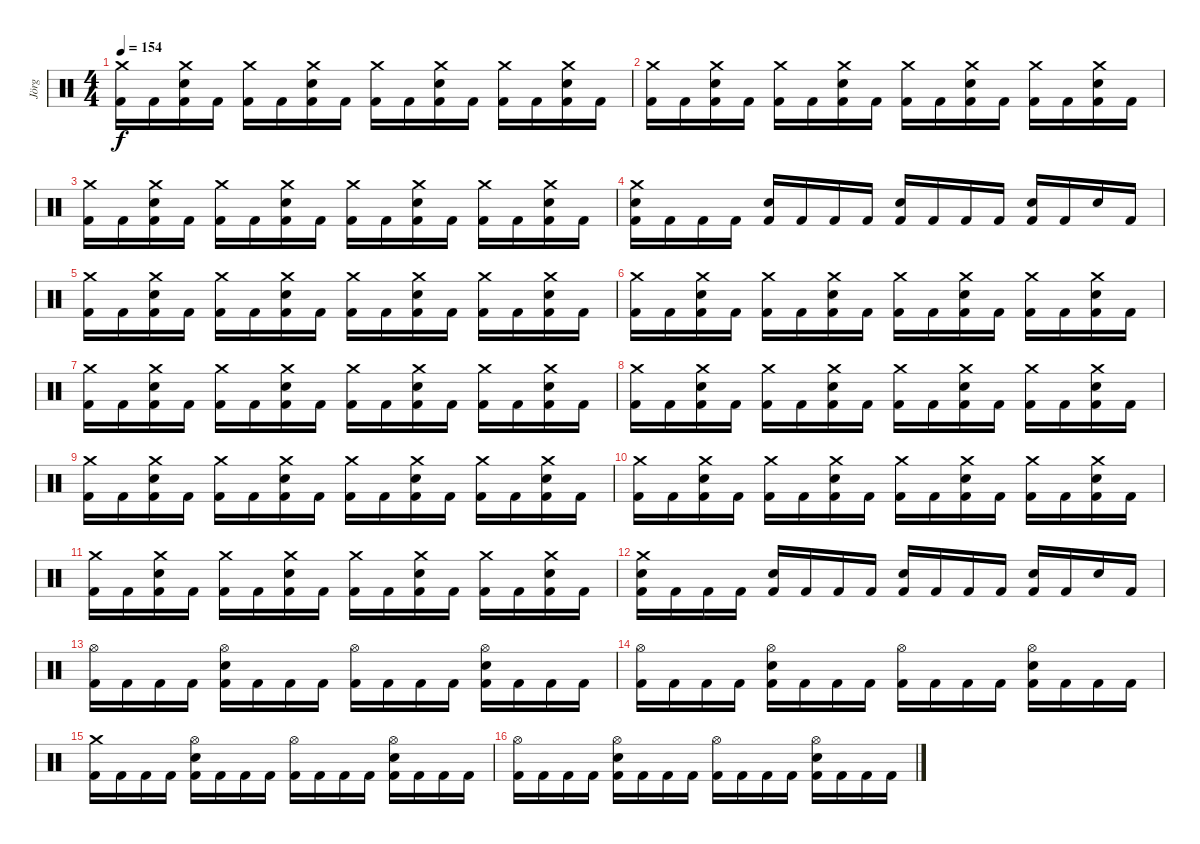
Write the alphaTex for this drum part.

\track ("Jörg" "Jörg") {instrument percussion}
\staff {score}
\articulation defaults
\ts (4 4)
\tempo 154
\clef neutral
\ks c
("Crash medium (hit)" "Kick (hit) 2").16{dy f} "Kick (hit) 2".16 ("Snare (hit) 2" "Crash medium (hit)" "Kick (hit) 2").16 "Kick (hit) 2".16 ("Crash medium (hit)" "Kick (hit) 2").16 "Kick (hit) 2".16 ("Snare (hit) 2" "Crash medium (hit)" "Kick (hit) 2").16 "Kick (hit) 2".16 ("Crash medium (hit)" "Kick (hit) 2").16 "Kick (hit) 2".16 ("Snare (hit) 2" "Crash medium (hit)" "Kick (hit) 2").16 "Kick (hit) 2".16 ("Crash medium (hit)" "Kick (hit) 2").16 "Kick (hit) 2".16 ("Snare (hit) 2" "Crash medium (hit)" "Kick (hit) 2").16 "Kick (hit) 2".16 |
("Crash medium (hit)" "Kick (hit) 2").16 "Kick (hit) 2".16 ("Snare (hit) 2" "Crash medium (hit)" "Kick (hit) 2").16 "Kick (hit) 2".16 ("Crash medium (hit)" "Kick (hit) 2").16 "Kick (hit) 2".16 ("Snare (hit) 2" "Crash medium (hit)" "Kick (hit) 2").16 "Kick (hit) 2".16 ("Crash medium (hit)" "Kick (hit) 2").16 "Kick (hit) 2".16 ("Snare (hit) 2" "Crash medium (hit)" "Kick (hit) 2").16 "Kick (hit) 2".16 ("Crash medium (hit)" "Kick (hit) 2").16 "Kick (hit) 2".16 ("Snare (hit) 2" "Crash medium (hit)" "Kick (hit) 2").16 "Kick (hit) 2".16 |
("Crash medium (hit)" "Kick (hit) 2").16 "Kick (hit) 2".16 ("Snare (hit) 2" "Crash medium (hit)" "Kick (hit) 2").16 "Kick (hit) 2".16 ("Crash medium (hit)" "Kick (hit) 2").16 "Kick (hit) 2".16 ("Snare (hit) 2" "Crash medium (hit)" "Kick (hit) 2").16 "Kick (hit) 2".16 ("Crash medium (hit)" "Kick (hit) 2").16 "Kick (hit) 2".16 ("Snare (hit) 2" "Crash medium (hit)" "Kick (hit) 2").16 "Kick (hit) 2".16 ("Crash medium (hit)" "Kick (hit) 2").16 "Kick (hit) 2".16 ("Snare (hit) 2" "Crash medium (hit)" "Kick (hit) 2").16 "Kick (hit) 2".16 |
("Snare (hit) 2" "Crash medium (hit)" "Kick (hit) 2").16 "Kick (hit) 2".16 "Kick (hit) 2".16 "Kick (hit) 2".16 ("Snare (hit) 2" "Kick (hit) 2").16 "Kick (hit) 2".16 "Kick (hit) 2".16 "Kick (hit) 2".16 ("Snare (hit) 2" "Kick (hit) 2").16 "Kick (hit) 2".16 "Kick (hit) 2".16 "Kick (hit) 2".16 ("Snare (hit) 2" "Kick (hit) 2").16 "Kick (hit) 2".16 "Snare (hit) 2".16 "Kick (hit) 2".16 |
("Crash medium (hit)" "Kick (hit) 2").16 "Kick (hit) 2".16 ("Snare (hit) 2" "Crash medium (hit)" "Kick (hit) 2").16 "Kick (hit) 2".16 ("Crash medium (hit)" "Kick (hit) 2").16 "Kick (hit) 2".16 ("Snare (hit) 2" "Crash medium (hit)" "Kick (hit) 2").16 "Kick (hit) 2".16 ("Crash medium (hit)" "Kick (hit) 2").16 "Kick (hit) 2".16 ("Snare (hit) 2" "Crash medium (hit)" "Kick (hit) 2").16 "Kick (hit) 2".16 ("Crash medium (hit)" "Kick (hit) 2").16 "Kick (hit) 2".16 ("Snare (hit) 2" "Crash medium (hit)" "Kick (hit) 2").16 "Kick (hit) 2".16 |
("Crash medium (hit)" "Kick (hit) 2").16 "Kick (hit) 2".16 ("Snare (hit) 2" "Crash medium (hit)" "Kick (hit) 2").16 "Kick (hit) 2".16 ("Crash medium (hit)" "Kick (hit) 2").16 "Kick (hit) 2".16 ("Snare (hit) 2" "Crash medium (hit)" "Kick (hit) 2").16 "Kick (hit) 2".16 ("Crash medium (hit)" "Kick (hit) 2").16 "Kick (hit) 2".16 ("Snare (hit) 2" "Crash medium (hit)" "Kick (hit) 2").16 "Kick (hit) 2".16 ("Crash medium (hit)" "Kick (hit) 2").16 "Kick (hit) 2".16 ("Snare (hit) 2" "Crash medium (hit)" "Kick (hit) 2").16 "Kick (hit) 2".16 |
("Crash medium (hit)" "Kick (hit) 2").16 "Kick (hit) 2".16 ("Snare (hit) 2" "Crash medium (hit)" "Kick (hit) 2").16 "Kick (hit) 2".16 ("Crash medium (hit)" "Kick (hit) 2").16 "Kick (hit) 2".16 ("Snare (hit) 2" "Crash medium (hit)" "Kick (hit) 2").16 "Kick (hit) 2".16 ("Crash medium (hit)" "Kick (hit) 2").16 "Kick (hit) 2".16 ("Snare (hit) 2" "Crash medium (hit)" "Kick (hit) 2").16 "Kick (hit) 2".16 ("Crash medium (hit)" "Kick (hit) 2").16 "Kick (hit) 2".16 ("Snare (hit) 2" "Crash medium (hit)" "Kick (hit) 2").16 "Kick (hit) 2".16 |
("Crash medium (hit)" "Kick (hit) 2").16 "Kick (hit) 2".16 ("Snare (hit) 2" "Crash medium (hit)" "Kick (hit) 2").16 "Kick (hit) 2".16 ("Crash medium (hit)" "Kick (hit) 2").16 "Kick (hit) 2".16 ("Snare (hit) 2" "Crash medium (hit)" "Kick (hit) 2").16 "Kick (hit) 2".16 ("Crash medium (hit)" "Kick (hit) 2").16 "Kick (hit) 2".16 ("Snare (hit) 2" "Crash medium (hit)" "Kick (hit) 2").16 "Kick (hit) 2".16 ("Crash medium (hit)" "Kick (hit) 2").16 "Kick (hit) 2".16 ("Snare (hit) 2" "Crash medium (hit)" "Kick (hit) 2").16 "Kick (hit) 2".16 |
("Crash medium (hit)" "Kick (hit) 2").16 "Kick (hit) 2".16 ("Snare (hit) 2" "Crash medium (hit)" "Kick (hit) 2").16 "Kick (hit) 2".16 ("Crash medium (hit)" "Kick (hit) 2").16 "Kick (hit) 2".16 ("Snare (hit) 2" "Crash medium (hit)" "Kick (hit) 2").16 "Kick (hit) 2".16 ("Crash medium (hit)" "Kick (hit) 2").16 "Kick (hit) 2".16 ("Snare (hit) 2" "Crash medium (hit)" "Kick (hit) 2").16 "Kick (hit) 2".16 ("Crash medium (hit)" "Kick (hit) 2").16 "Kick (hit) 2".16 ("Snare (hit) 2" "Crash medium (hit)" "Kick (hit) 2").16 "Kick (hit) 2".16 |
("Crash medium (hit)" "Kick (hit) 2").16 "Kick (hit) 2".16 ("Snare (hit) 2" "Crash medium (hit)" "Kick (hit) 2").16 "Kick (hit) 2".16 ("Crash medium (hit)" "Kick (hit) 2").16 "Kick (hit) 2".16 ("Snare (hit) 2" "Crash medium (hit)" "Kick (hit) 2").16 "Kick (hit) 2".16 ("Crash medium (hit)" "Kick (hit) 2").16 "Kick (hit) 2".16 ("Snare (hit) 2" "Crash medium (hit)" "Kick (hit) 2").16 "Kick (hit) 2".16 ("Crash medium (hit)" "Kick (hit) 2").16 "Kick (hit) 2".16 ("Snare (hit) 2" "Crash medium (hit)" "Kick (hit) 2").16 "Kick (hit) 2".16 |
("Crash medium (hit)" "Kick (hit) 2").16 "Kick (hit) 2".16 ("Snare (hit) 2" "Crash medium (hit)" "Kick (hit) 2").16 "Kick (hit) 2".16 ("Crash medium (hit)" "Kick (hit) 2").16 "Kick (hit) 2".16 ("Snare (hit) 2" "Crash medium (hit)" "Kick (hit) 2").16 "Kick (hit) 2".16 ("Crash medium (hit)" "Kick (hit) 2").16 "Kick (hit) 2".16 ("Snare (hit) 2" "Crash medium (hit)" "Kick (hit) 2").16 "Kick (hit) 2".16 ("Crash medium (hit)" "Kick (hit) 2").16 "Kick (hit) 2".16 ("Snare (hit) 2" "Crash medium (hit)" "Kick (hit) 2").16 "Kick (hit) 2".16 |
("Snare (hit) 2" "Crash medium (hit)" "Kick (hit) 2").16 "Kick (hit) 2".16 "Kick (hit) 2".16 "Kick (hit) 2".16 ("Snare (hit) 2" "Kick (hit) 2").16 "Kick (hit) 2".16 "Kick (hit) 2".16 "Kick (hit) 2".16 ("Snare (hit) 2" "Kick (hit) 2").16 "Kick (hit) 2".16 "Kick (hit) 2".16 "Kick (hit) 2".16 ("Snare (hit) 2" "Kick (hit) 2").16 "Kick (hit) 2".16 "Snare (hit) 2".16 "Kick (hit) 2".16 |
("Hi-Hat (open)" "Kick (hit) 2").16 "Kick (hit) 2".16 "Kick (hit) 2".16 "Kick (hit) 2".16 ("Snare (hit) 2" "Hi-Hat (open)" "Kick (hit) 2").16 "Kick (hit) 2".16 "Kick (hit) 2".16 "Kick (hit) 2".16 ("Hi-Hat (open)" "Kick (hit) 2").16 "Kick (hit) 2".16 "Kick (hit) 2".16 "Kick (hit) 2".16 ("Snare (hit) 2" "Hi-Hat (open)" "Kick (hit) 2").16 "Kick (hit) 2".16 "Kick (hit) 2".16 "Kick (hit) 2".16 |
("Hi-Hat (open)" "Kick (hit) 2").16 "Kick (hit) 2".16 "Kick (hit) 2".16 "Kick (hit) 2".16 ("Snare (hit) 2" "Hi-Hat (open)" "Kick (hit) 2").16 "Kick (hit) 2".16 "Kick (hit) 2".16 "Kick (hit) 2".16 ("Hi-Hat (open)" "Kick (hit) 2").16 "Kick (hit) 2".16 "Kick (hit) 2".16 "Kick (hit) 2".16 ("Snare (hit) 2" "Hi-Hat (open)" "Kick (hit) 2").16 "Kick (hit) 2".16 "Kick (hit) 2".16 "Kick (hit) 2".16 |
("Crash medium (hit)" "Kick (hit) 2").16 "Kick (hit) 2".16 "Kick (hit) 2".16 "Kick (hit) 2".16 ("Snare (hit) 2" "Hi-Hat (open)" "Kick (hit) 2").16 "Kick (hit) 2".16 "Kick (hit) 2".16 "Kick (hit) 2".16 ("Hi-Hat (open)" "Kick (hit) 2").16 "Kick (hit) 2".16 "Kick (hit) 2".16 "Kick (hit) 2".16 ("Snare (hit) 2" "Hi-Hat (open)" "Kick (hit) 2").16 "Kick (hit) 2".16 "Kick (hit) 2".16 "Kick (hit) 2".16 |
("Hi-Hat (open)" "Kick (hit) 2").16 "Kick (hit) 2".16 "Kick (hit) 2".16 "Kick (hit) 2".16 ("Snare (hit) 2" "Hi-Hat (open)" "Kick (hit) 2").16 "Kick (hit) 2".16 "Kick (hit) 2".16 "Kick (hit) 2".16 ("Hi-Hat (open)" "Kick (hit) 2").16 "Kick (hit) 2".16 "Kick (hit) 2".16 "Kick (hit) 2".16 ("Snare (hit) 2" "Hi-Hat (open)" "Kick (hit) 2").16 "Kick (hit) 2".16 "Kick (hit) 2".16 "Kick (hit) 2".16
